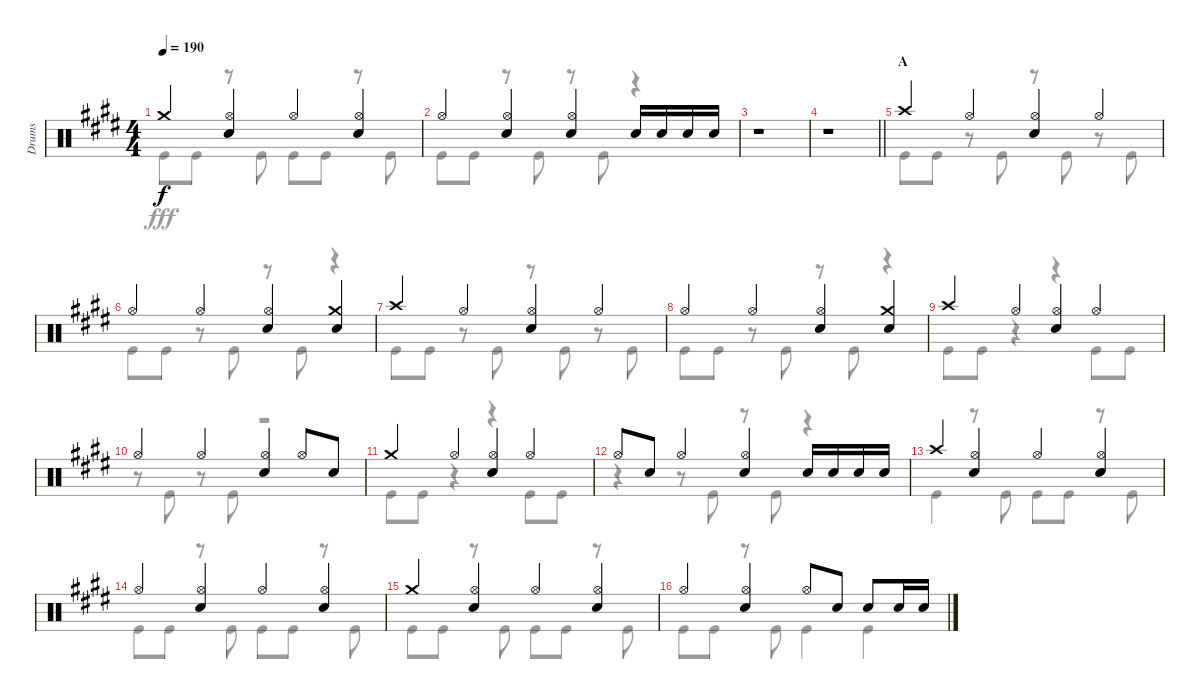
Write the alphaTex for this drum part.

\track ("Drums" "Drums") {instrument percussion}
\staff {score}
\articulation defaults
\voice
\ts (4 4)
\tempo 190
\clef neutral
\ks e "Crash medium (hit)".4{dy f}
("Hi-Hat (open)" "Snare (hit) 2").4 "Hi-Hat (open)".4 ("Hi-Hat (open)" "Snare (hit) 2").4 |
"Hi-Hat (open)".4 ("Hi-Hat (open)" "Snare (hit) 2").4 ("Hi-Hat (open)" "Snare (hit) 2").4 "Snare (hit) 2".16 "Snare (hit) 2".16 "Snare (hit) 2".16 "Snare (hit) 2".16 |
r.1 |
\barLineRight lightlight
r.1 |
\section ("" "A")
"Crash high (hit)".4 "Hi-Hat (open)".4 ("Hi-Hat (open)" "Snare (hit) 2").4 "Hi-Hat (open)".4 |
"Hi-Hat (open)".4 "Hi-Hat (open)".4 ("Hi-Hat (open)" "Snare (hit) 2").4 ("Crash medium (hit)" "Snare (hit) 2").4 |
"Crash high (hit)".4 "Hi-Hat (open)".4 ("Hi-Hat (open)" "Snare (hit) 2").4 "Hi-Hat (open)".4 |
"Hi-Hat (open)".4 "Hi-Hat (open)".4 ("Hi-Hat (open)" "Snare (hit) 2").4 ("Crash medium (hit)" "Snare (hit) 2").4 |
"Crash high (hit)".4 "Hi-Hat (open)".4 ("Hi-Hat (open)" "Snare (hit) 2").4 "Hi-Hat (open)".4 |
"Hi-Hat (open)".4 "Hi-Hat (open)".4 ("Hi-Hat (open)" "Snare (hit) 2").4 "Hi-Hat (open)".8 "Snare (hit) 2".8 |
"Crash medium (hit)".4 "Hi-Hat (open)".4 ("Hi-Hat (open)" "Snare (hit) 2").4 "Hi-Hat (open)".4 |
"Hi-Hat (open)".8 "Snare (hit) 2".8 "Hi-Hat (open)".4 ("Hi-Hat (open)" "Snare (hit) 2").4 "Snare (hit) 2".16 "Snare (hit) 2".16 "Snare (hit) 2".16 "Snare (hit) 2".16 |
"Crash high (hit)".4 ("Hi-Hat (open)" "Snare (hit) 2").4 "Hi-Hat (open)".4 ("Hi-Hat (open)" "Snare (hit) 2").4 |
"Hi-Hat (open)".4 ("Hi-Hat (open)" "Snare (hit) 2").4 "Hi-Hat (open)".4 ("Hi-Hat (open)" "Snare (hit) 2").4 |
"Crash medium (hit)".4 ("Hi-Hat (open)" "Snare (hit) 2").4 "Hi-Hat (open)".4 ("Hi-Hat (open)" "Snare (hit) 2").4 |
"Hi-Hat (open)".4 ("Hi-Hat (open)" "Snare (hit) 2").4 "Hi-Hat (open)".8 "Snare (hit) 2".8 "Snare (hit) 2".8 "Snare (hit) 2".16 "Snare (hit) 2".16
\voice
\clef neutral
\ottava regular
\simile none
\ks e "Kick (hit)".8{dy fff} "Kick (hit)".8
r.8 "Kick (hit)".8 "Kick (hit)".8 "Kick (hit)".8 r.8 "Kick (hit)".8 |
"Kick (hit)".8 "Kick (hit)".8 r.8 "Kick (hit)".8 r.8 "Kick (hit)".8 r.4 |
r.1 |
\barLineRight lightlight
r.1 |
"Kick (hit)".8 "Kick (hit)".8 r.8 "Kick (hit)".8 r.8 "Kick (hit)".8 r.8 "Kick (hit)".8 |
"Kick (hit)".8 "Kick (hit)".8 r.8 "Kick (hit)".8 r.8 "Kick (hit)".8 r.4 |
"Kick (hit)".8 "Kick (hit)".8 r.8 "Kick (hit)".8 r.8 "Kick (hit)".8 r.8 "Kick (hit)".8 |
"Kick (hit)".8 "Kick (hit)".8 r.8 "Kick (hit)".8 r.8 "Kick (hit)".8 r.4 |
"Kick (hit)".8 "Kick (hit)".8 r.4 r.4 "Kick (hit)".8 "Kick (hit)".8 |
r.8 "Kick (hit)".8 r.8 "Kick (hit)".8 r.2 |
"Kick (hit)".8 "Kick (hit)".8 r.4 r.4 "Kick (hit)".8 "Kick (hit)".8 |
r.4 r.8 "Kick (hit)".8 r.8 "Kick (hit)".8 r.4 |
"Kick (hit)".4 r.8 "Kick (hit)".8 "Kick (hit)".8 "Kick (hit)".8 r.8 "Kick (hit)".8 |
"Kick (hit)".8 "Kick (hit)".8 r.8 "Kick (hit)".8 "Kick (hit)".8 "Kick (hit)".8 r.8 "Kick (hit)".8 |
"Kick (hit)".8 "Kick (hit)".8 r.8 "Kick (hit)".8 "Kick (hit)".8 "Kick (hit)".8 r.8 "Kick (hit)".8 |
"Kick (hit)".8 "Kick (hit)".8 r.8 "Kick (hit)".8 "Kick (hit)".4 "Kick (hit)".4
